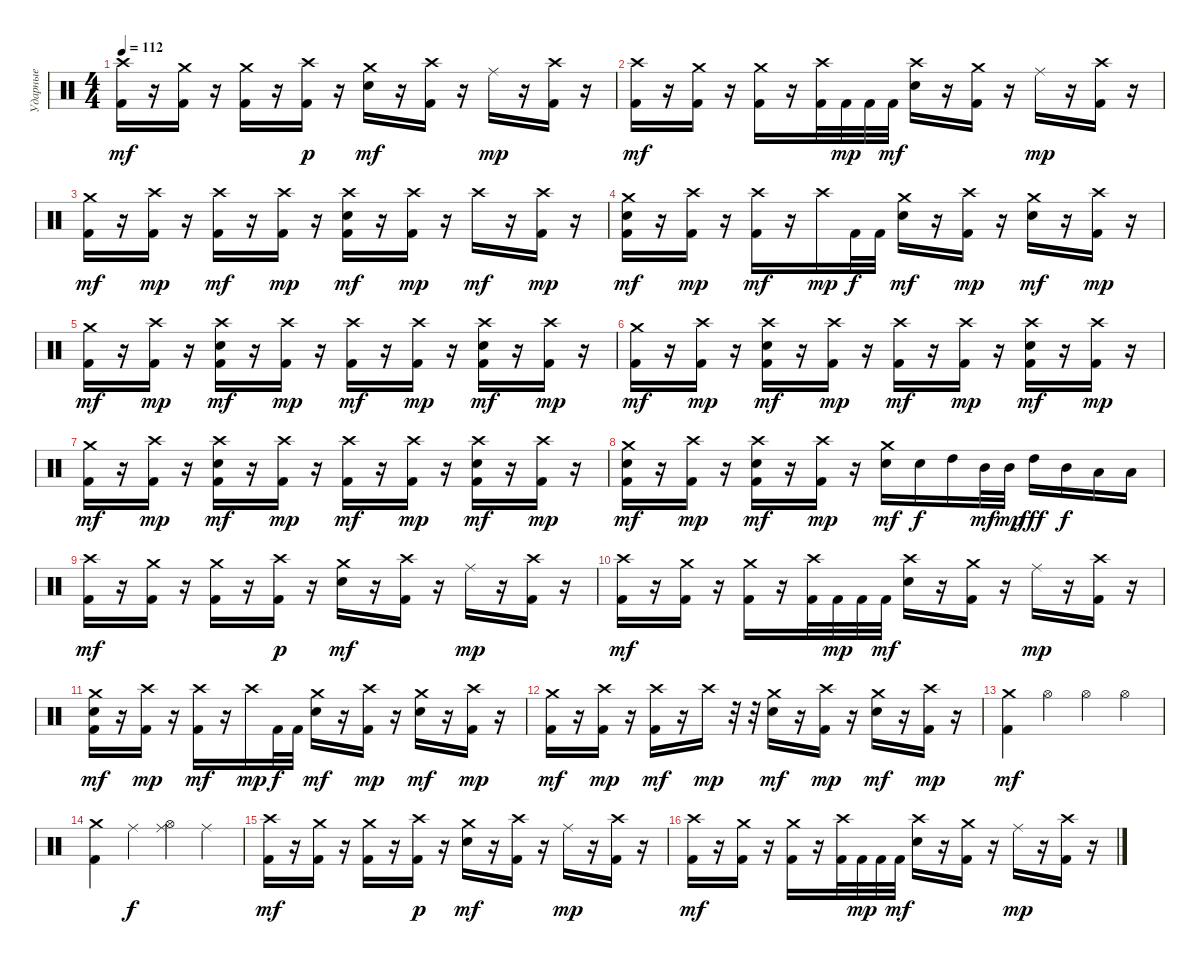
\track ("Ударные" "Ударные") {instrument percussion}
\staff {score}
\articulation defaults
\ts (4 4)
\tempo 112
\clef neutral
\ks c
("Crash high (hit)" "Kick (hit) 2").16{dy mf} r.16 ("Crash medium (hit)" "Kick (hit) 2").16 r.16 ("Crash medium (hit)" "Kick (hit) 2").16 r.16 ("Crash high (hit)" "Kick (hit) 2").16{dy p} r.16 ("Crash medium (hit)" "Electric Snare (hit)").16{dy mf} r.16 ("Crash high (hit)" "Kick (hit) 2").16 r.16 "Ride (middle)".16{dy mp} r.16 ("Crash high (hit)" "Kick (hit) 2").16 r.16 |
("Crash high (hit)" "Kick (hit) 2").16{dy mf} r.16 ("Crash medium (hit)" "Kick (hit) 2").16 r.16 ("Crash medium (hit)" "Kick (hit) 2").16 r.16 ("Crash high (hit)" "Kick (hit) 2").32 "Kick (hit) 2".32{dy mp} "Kick (hit) 2".32 "Kick (hit) 2".32{dy mf} ("Crash high (hit)" "Electric Snare (hit)").16 r.16 ("Crash medium (hit)" "Kick (hit) 2").16 r.16 "Ride (middle)".16{dy mp} r.16 ("Crash high (hit)" "Kick (hit) 2").16 r.16 |
("Crash medium (hit)" "Kick (hit) 2").16{dy mf} r.16 ("Crash high (hit)" "Kick (hit) 2").16{dy mp} r.16 ("Crash high (hit)" "Kick (hit) 2").16{dy mf} r.16 ("Crash high (hit)" "Kick (hit) 2").16{dy mp} r.16 ("Crash high (hit)" "Electric Snare (hit)" "Kick (hit) 2").16{dy mf} r.16 ("Crash high (hit)" "Kick (hit) 2").16{dy mp} r.16 "Crash high (hit)".16{dy mf} r.16 ("Crash high (hit)" "Kick (hit) 2").16{dy mp} r.16 |
("Crash medium (hit)" "Electric Snare (hit)" "Kick (hit) 2").16{dy mf} r.16 ("Crash high (hit)" "Kick (hit) 2").16{dy mp} r.16 ("Crash high (hit)" "Kick (hit) 2").16{dy mf} r.16 "Crash high (hit)".16{dy mp} "Kick (hit) 2".32{dy f} "Kick (hit) 2".32 ("Crash medium (hit)" "Electric Snare (hit)").16{dy mf} r.16 ("Crash high (hit)" "Kick (hit) 2").16{dy mp} r.16 ("Crash medium (hit)" "Electric Snare (hit)").16{dy mf} r.16 ("Crash high (hit)" "Kick (hit) 2").16{dy mp} r.16 |
("Crash medium (hit)" "Kick (hit) 2").16{dy mf} r.16 ("Crash high (hit)" "Kick (hit) 2").16{dy mp} r.16 ("Crash high (hit)" "Electric Snare (hit)" "Kick (hit) 2").16{dy mf} r.16 ("Crash high (hit)" "Kick (hit) 2").16{dy mp} r.16 ("Crash high (hit)" "Kick (hit) 2").16{dy mf} r.16 ("Crash high (hit)" "Kick (hit) 2").16{dy mp} r.16 ("Crash high (hit)" "Electric Snare (hit)" "Kick (hit) 2").16{dy mf} r.16 ("Crash high (hit)" "Kick (hit) 2").16{dy mp} r.16 |
("Crash medium (hit)" "Kick (hit) 2").16{dy mf} r.16 ("Crash high (hit)" "Kick (hit) 2").16{dy mp} r.16 ("Crash high (hit)" "Electric Snare (hit)" "Kick (hit) 2").16{dy mf} r.16 ("Crash high (hit)" "Kick (hit) 2").16{dy mp} r.16 ("Crash high (hit)" "Kick (hit) 2").16{dy mf} r.16 ("Crash high (hit)" "Kick (hit) 2").16{dy mp} r.16 ("Crash high (hit)" "Electric Snare (hit)" "Kick (hit) 2").16{dy mf} r.16 ("Crash high (hit)" "Kick (hit) 2").16{dy mp} r.16 |
("Crash medium (hit)" "Kick (hit) 2").16{dy mf} r.16 ("Crash high (hit)" "Kick (hit) 2").16{dy mp} r.16 ("Crash high (hit)" "Electric Snare (hit)" "Kick (hit) 2").16{dy mf} r.16 ("Crash high (hit)" "Kick (hit) 2").16{dy mp} r.16 ("Crash high (hit)" "Kick (hit) 2").16{dy mf} r.16 ("Crash high (hit)" "Kick (hit) 2").16{dy mp} r.16 ("Crash high (hit)" "Electric Snare (hit)" "Kick (hit) 2").16{dy mf} r.16 ("Crash high (hit)" "Kick (hit) 2").16{dy mp} r.16 |
("Crash medium (hit)" "Electric Snare (hit)" "Kick (hit) 2").16{dy mf} r.16 ("Crash high (hit)" "Kick (hit) 2").16{dy mp} r.16 ("Crash high (hit)" "Electric Snare (hit)" "Kick (hit) 2").16{dy mf} r.16 ("Crash high (hit)" "Kick (hit) 2").16{dy mp} r.16 ("Crash medium (hit)" "Electric Snare (hit)").16{dy mf} "Electric Snare (hit)".16{dy f} "High Tom (hit)".16 "Mid Tom (hit)".32{dy mf} "Mid Tom (hit)".32{dy mp} "High Tom (hit)".16{dy fff} "Mid Tom (hit)".16{dy f} "Low Tom (hit)".16 "Low Tom (hit)".16 |
("Crash high (hit)" "Kick (hit) 2").16{dy mf} r.16 ("Crash medium (hit)" "Kick (hit) 2").16 r.16 ("Crash medium (hit)" "Kick (hit) 2").16 r.16 ("Crash high (hit)" "Kick (hit) 2").16{dy p} r.16 ("Crash medium (hit)" "Electric Snare (hit)").16{dy mf} r.16 ("Crash high (hit)" "Kick (hit) 2").16 r.16 "Ride (middle)".16{dy mp} r.16 ("Crash high (hit)" "Kick (hit) 2").16 r.16 |
("Crash high (hit)" "Kick (hit) 2").16{dy mf} r.16 ("Crash medium (hit)" "Kick (hit) 2").16 r.16 ("Crash medium (hit)" "Kick (hit) 2").16 r.16 ("Crash high (hit)" "Kick (hit) 2").32 "Kick (hit) 2".32{dy mp} "Kick (hit) 2".32 "Kick (hit) 2".32{dy mf} ("Crash high (hit)" "Electric Snare (hit)").16 r.16 ("Crash medium (hit)" "Kick (hit) 2").16 r.16 "Ride (middle)".16{dy mp} r.16 ("Crash high (hit)" "Kick (hit) 2").16 r.16 |
("Crash medium (hit)" "Electric Snare (hit)" "Kick (hit) 2").16{dy mf} r.16 ("Crash high (hit)" "Kick (hit) 2").16{dy mp} r.16 ("Crash high (hit)" "Kick (hit) 2").16{dy mf} r.16 "Crash high (hit)".16{dy mp} "Kick (hit) 2".32{dy f} "Kick (hit) 2".32 ("Crash medium (hit)" "Electric Snare (hit)").16{dy mf} r.16 ("Crash high (hit)" "Kick (hit) 2").16{dy mp} r.16 ("Crash medium (hit)" "Electric Snare (hit)").16{dy mf} r.16 ("Crash high (hit)" "Kick (hit) 2").16{dy mp} r.16 |
("Crash medium (hit)" "Kick (hit) 2").16{dy mf} r.16 ("Crash high (hit)" "Kick (hit) 2").16{dy mp} r.16 ("Crash high (hit)" "Kick (hit) 2").16{dy mf} r.16 "Crash high (hit)".16{dy mp} r.32 r.32 ("Crash medium (hit)" "Electric Snare (hit)").16{dy mf} r.16 ("Crash high (hit)" "Kick (hit) 2").16{dy mp} r.16 ("Crash medium (hit)" "Electric Snare (hit)").16{dy mf} r.16 ("Crash high (hit)" "Kick (hit) 2").16{dy mp} r.16 |
("Crash medium (hit)" "Kick (hit) 2").4{dy mf} "Hi-Hat (open)".4 "Hi-Hat (open)".4 "Hi-Hat (open)".4 |
("Crash medium (hit)" "Kick (hit) 2").4 "Ride (middle)".4{dy f} ("Hi-Hat (open)" "Ride (middle)").4 "Ride (middle)".4 |
("Crash high (hit)" "Kick (hit) 2").16{dy mf} r.16 ("Crash medium (hit)" "Kick (hit) 2").16 r.16 ("Crash medium (hit)" "Kick (hit) 2").16 r.16 ("Crash high (hit)" "Kick (hit) 2").16{dy p} r.16 ("Crash medium (hit)" "Electric Snare (hit)").16{dy mf} r.16 ("Crash high (hit)" "Kick (hit) 2").16 r.16 "Ride (middle)".16{dy mp} r.16 ("Crash high (hit)" "Kick (hit) 2").16 r.16 |
("Crash high (hit)" "Kick (hit) 2").16{dy mf} r.16 ("Crash medium (hit)" "Kick (hit) 2").16 r.16 ("Crash medium (hit)" "Kick (hit) 2").16 r.16 ("Crash high (hit)" "Kick (hit) 2").32 "Kick (hit) 2".32{dy mp} "Kick (hit) 2".32 "Kick (hit) 2".32{dy mf} ("Crash high (hit)" "Electric Snare (hit)").16 r.16 ("Crash medium (hit)" "Kick (hit) 2").16 r.16 "Ride (middle)".16{dy mp} r.16 ("Crash high (hit)" "Kick (hit) 2").16 r.16
